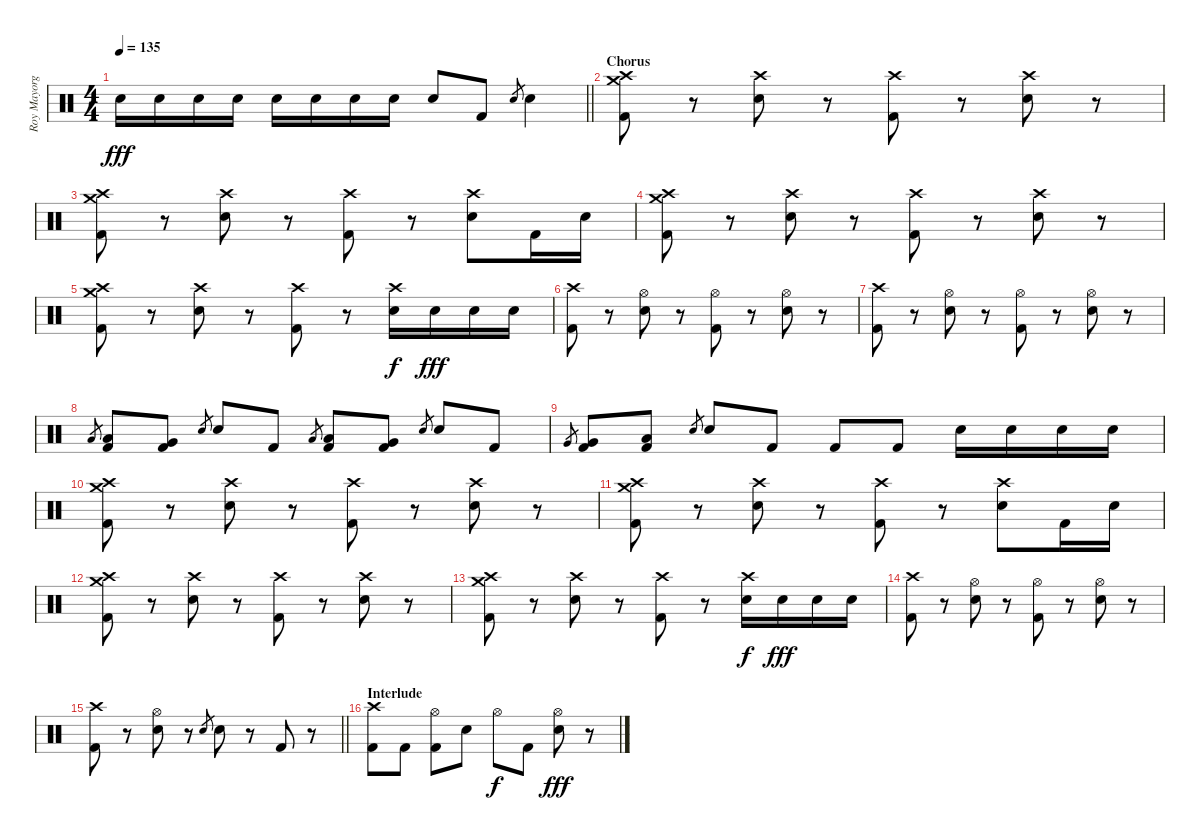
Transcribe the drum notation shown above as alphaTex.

\track ("Roy Mayorga" "Roy Mayorg") {instrument percussion}
\staff {score}
\articulation defaults
\ts (4 4)
\tempo 135
\clef neutral
\barLineRight lightlight
\ks c "Electric Snare (hit)".16{dy fff} "Electric Snare (hit)".16 "Electric Snare (hit)".16 "Electric Snare (hit)".16 "Electric Snare (hit)".16 "Electric Snare (hit)".16 "Electric Snare (hit)".16 "Electric Snare (hit)".16 "Electric Snare (hit)".8 "Kick (hit) 2".8 "Electric Snare (hit)".8{gr} "Electric Snare (hit)".4
|
\section ("" "Chorus")
("Crash medium (hit)" "Crash high (hit)" "Kick (hit) 2").8 r.8 ("Crash high (hit)" "Electric Snare (hit)").8 r.8 ("Crash high (hit)" "Kick (hit) 2").8 r.8 ("Crash high (hit)" "Electric Snare (hit)").8 r.8 |
("Crash medium (hit)" "Crash high (hit)" "Kick (hit) 2").8 r.8 ("Crash high (hit)" "Electric Snare (hit)").8 r.8 ("Crash high (hit)" "Kick (hit) 2").8 r.8 ("Crash high (hit)" "Electric Snare (hit)").8 "Kick (hit) 2".16 "Electric Snare (hit)".16 |
("Crash medium (hit)" "Crash high (hit)" "Kick (hit) 2").8 r.8 ("Crash high (hit)" "Electric Snare (hit)").8 r.8 ("Crash high (hit)" "Kick (hit) 2").8 r.8 ("Crash high (hit)" "Electric Snare (hit)").8 r.8 |
("Crash medium (hit)" "Crash high (hit)" "Kick (hit) 2").8 r.8 ("Crash high (hit)" "Electric Snare (hit)").8 r.8 ("Crash high (hit)" "Kick (hit) 2").8 r.8 ("Crash high (hit)" "Electric Snare (hit)").16{dy f} "Electric Snare (hit)".16{dy fff} "Electric Snare (hit)".16 "Electric Snare (hit)".16 |
("Crash high (hit)" "Kick (hit) 2").8 r.8 ("Hi-Hat (open)" "Electric Snare (hit)").8 r.8 ("Hi-Hat (open)" "Kick (hit) 2").8 r.8 ("Hi-Hat (open)" "Electric Snare (hit)").8 r.8 |
("Crash high (hit)" "Kick (hit) 2").8 r.8 ("Hi-Hat (open)" "Electric Snare (hit)").8 r.8 ("Hi-Hat (open)" "Kick (hit) 2").8 r.8 ("Hi-Hat (open)" "Electric Snare (hit)").8 r.8 |
"Low Floor Tom (hit)".8{gr} ("Low Floor Tom (hit)" "Kick (hit) 2").8 ("Very Low Tom (hit)" "Kick (hit) 2").8 "Electric Snare (hit)".8{gr} "Electric Snare (hit)".8 "Kick (hit) 2".8 "Low Floor Tom (hit)".8{gr} ("Low Floor Tom (hit)" "Kick (hit) 2").8 ("Very Low Tom (hit)" "Kick (hit) 2").8 "Electric Snare (hit)".8{gr} "Electric Snare (hit)".8 "Kick (hit) 2".8 |
"Very Low Tom (hit)".8{gr} ("Very Low Tom (hit)" "Kick (hit) 2").8 ("Low Floor Tom (hit)" "Kick (hit) 2").8 "Electric Snare (hit)".8{gr} "Electric Snare (hit)".8 "Kick (hit) 2".8 "Kick (hit) 2".8 "Kick (hit) 2".8 "Electric Snare (hit)".16 "Electric Snare (hit)".16 "Electric Snare (hit)".16 "Electric Snare (hit)".16 |
("Crash medium (hit)" "Crash high (hit)" "Kick (hit) 2").8 r.8 ("Crash high (hit)" "Electric Snare (hit)").8 r.8 ("Crash high (hit)" "Kick (hit) 2").8 r.8 ("Crash high (hit)" "Electric Snare (hit)").8 r.8 |
("Crash medium (hit)" "Crash high (hit)" "Kick (hit) 2").8 r.8 ("Crash high (hit)" "Electric Snare (hit)").8 r.8 ("Crash high (hit)" "Kick (hit) 2").8 r.8 ("Crash high (hit)" "Electric Snare (hit)").8 "Kick (hit) 2".16 "Electric Snare (hit)".16 |
("Crash medium (hit)" "Crash high (hit)" "Kick (hit) 2").8 r.8 ("Crash high (hit)" "Electric Snare (hit)").8 r.8 ("Crash high (hit)" "Kick (hit) 2").8 r.8 ("Crash high (hit)" "Electric Snare (hit)").8 r.8 |
("Crash medium (hit)" "Crash high (hit)" "Kick (hit) 2").8 r.8 ("Crash high (hit)" "Electric Snare (hit)").8 r.8 ("Crash high (hit)" "Kick (hit) 2").8 r.8 ("Crash high (hit)" "Electric Snare (hit)").16{dy f} "Electric Snare (hit)".16{dy fff} "Electric Snare (hit)".16 "Electric Snare (hit)".16 |
("Crash high (hit)" "Kick (hit) 2").8 r.8 ("Hi-Hat (open)" "Electric Snare (hit)").8 r.8 ("Hi-Hat (open)" "Kick (hit) 2").8 r.8 ("Hi-Hat (open)" "Electric Snare (hit)").8 r.8 |
\barLineRight lightlight
("Crash high (hit)" "Kick (hit) 2").8 r.8 ("Hi-Hat (open)" "Electric Snare (hit)").8 r.8 "Electric Snare (hit)".8{gr} "Electric Snare (hit)".8 r.8 "Kick (hit) 2".8 r.8 |
\section ("" "Interlude")
("Crash high (hit)" "Kick (hit) 2").8 "Kick (hit) 2".8 ("Hi-Hat (open)" "Kick (hit) 2").8 "Electric Snare (hit)".8 "Hi-Hat (open)".8{dy f} "Kick (hit) 2".8 ("Hi-Hat (open)" "Electric Snare (hit)").8{dy fff} r.8
